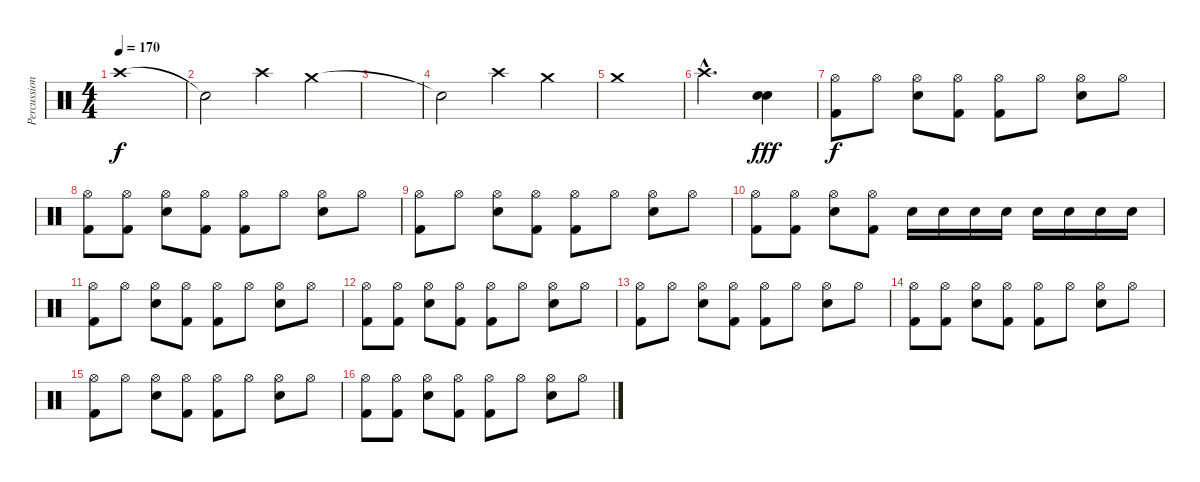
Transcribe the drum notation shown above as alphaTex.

\track ("Percussion" "Percussion") {instrument percussion}
\staff {score}
\articulation defaults
\ts (4 4)
\tempo 170
\clef neutral
\ks c "Crash high (hit)".1{dy f}
|
"Snare (hit)"{t}.2 "Crash high (hit)".4 "Crash medium (hit)".4 |
|
"Snare (hit)"{t}.2 "Crash high (hit)".4 "Crash medium (hit)".4 |
"Crash medium (hit)".1 |
"Crash high (hit)"{hac}.2{d} ("Snare (hit) 2" "Snare (hit)").4{dy fff} |
("Hi-Hat (open)" "Kick (hit) 2").8{dy f} "Hi-Hat (open)".8 ("Hi-Hat (open)" "Snare (hit) 2").8 ("Hi-Hat (open)" "Kick (hit) 2").8 ("Hi-Hat (open)" "Kick (hit) 2").8 "Hi-Hat (open)".8 ("Hi-Hat (open)" "Snare (hit) 2").8 "Hi-Hat (open)".8 |
("Hi-Hat (open)" "Kick (hit) 2").8 ("Hi-Hat (open)" "Kick (hit) 2").8 ("Hi-Hat (open)" "Snare (hit) 2").8 ("Hi-Hat (open)" "Kick (hit) 2").8 ("Hi-Hat (open)" "Kick (hit) 2").8 "Hi-Hat (open)".8 ("Hi-Hat (open)" "Snare (hit) 2").8 "Hi-Hat (open)".8 |
("Hi-Hat (open)" "Kick (hit) 2").8 "Hi-Hat (open)".8 ("Hi-Hat (open)" "Snare (hit) 2").8 ("Hi-Hat (open)" "Kick (hit) 2").8 ("Hi-Hat (open)" "Kick (hit) 2").8 "Hi-Hat (open)".8 ("Hi-Hat (open)" "Snare (hit) 2").8 "Hi-Hat (open)".8 |
("Hi-Hat (open)" "Kick (hit) 2").8 ("Hi-Hat (open)" "Kick (hit) 2").8 ("Hi-Hat (open)" "Snare (hit) 2").8 ("Hi-Hat (open)" "Kick (hit) 2").8 "Snare (hit) 2".16 "Snare (hit) 2".16 "Snare (hit) 2".16 "Snare (hit) 2".16 "Snare (hit) 2".16 "Snare (hit) 2".16 "Snare (hit) 2".16 "Snare (hit) 2".16 |
("Hi-Hat (open)" "Kick (hit) 2").8 "Hi-Hat (open)".8 ("Hi-Hat (open)" "Snare (hit) 2").8 ("Hi-Hat (open)" "Kick (hit) 2").8 ("Hi-Hat (open)" "Kick (hit) 2").8 "Hi-Hat (open)".8 ("Hi-Hat (open)" "Snare (hit) 2").8 "Hi-Hat (open)".8 |
("Hi-Hat (open)" "Kick (hit) 2").8 ("Hi-Hat (open)" "Kick (hit) 2").8 ("Hi-Hat (open)" "Snare (hit) 2").8 ("Hi-Hat (open)" "Kick (hit) 2").8 ("Hi-Hat (open)" "Kick (hit) 2").8 "Hi-Hat (open)".8 ("Hi-Hat (open)" "Snare (hit) 2").8 "Hi-Hat (open)".8 |
("Hi-Hat (open)" "Kick (hit) 2").8 "Hi-Hat (open)".8 ("Hi-Hat (open)" "Snare (hit) 2").8 ("Hi-Hat (open)" "Kick (hit) 2").8 ("Hi-Hat (open)" "Kick (hit) 2").8 "Hi-Hat (open)".8 ("Hi-Hat (open)" "Snare (hit) 2").8 "Hi-Hat (open)".8 |
("Hi-Hat (open)" "Kick (hit) 2").8 ("Hi-Hat (open)" "Kick (hit) 2").8 ("Hi-Hat (open)" "Snare (hit) 2").8 ("Hi-Hat (open)" "Kick (hit) 2").8 ("Hi-Hat (open)" "Kick (hit) 2").8 "Hi-Hat (open)".8 ("Hi-Hat (open)" "Snare (hit) 2").8 "Hi-Hat (open)".8 |
("Hi-Hat (open)" "Kick (hit) 2").8 "Hi-Hat (open)".8 ("Hi-Hat (open)" "Snare (hit) 2").8 ("Hi-Hat (open)" "Kick (hit) 2").8 ("Hi-Hat (open)" "Kick (hit) 2").8 "Hi-Hat (open)".8 ("Hi-Hat (open)" "Snare (hit) 2").8 "Hi-Hat (open)".8 |
("Hi-Hat (open)" "Kick (hit) 2").8 ("Hi-Hat (open)" "Kick (hit) 2").8 ("Hi-Hat (open)" "Snare (hit) 2").8 ("Hi-Hat (open)" "Kick (hit) 2").8 ("Hi-Hat (open)" "Kick (hit) 2").8 "Hi-Hat (open)".8 ("Hi-Hat (open)" "Snare (hit) 2").8 "Hi-Hat (open)".8
